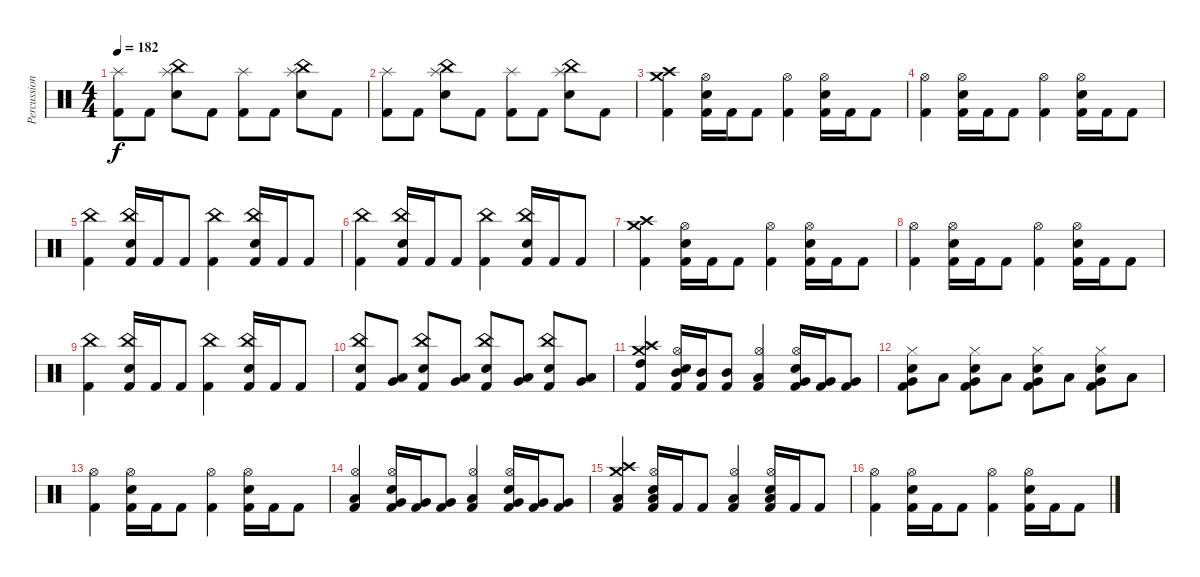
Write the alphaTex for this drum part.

\track ("Percussion" "Percussion") {instrument percussion}
\staff {score}
\articulation defaults
\ts (4 4)
\tempo 182
\clef neutral
\ks c
("Splash (hit)" "Kick (hit) 2").8{dy f} "Kick (hit) 2".8 ("Splash (hit)" "China (hit)" "Snare (hit) 2").8 "Kick (hit) 2".8 ("Splash (hit)" "Kick (hit) 2").8 "Kick (hit) 2".8 ("Splash (hit)" "China (hit)" "Snare (hit) 2").8 "Kick (hit) 2".8 |
("Splash (hit)" "Kick (hit) 2").8 "Kick (hit) 2".8 ("Splash (hit)" "China (hit)" "Snare (hit) 2").8 "Kick (hit) 2".8 ("Splash (hit)" "Kick (hit) 2").8 "Kick (hit) 2".8 ("Splash (hit)" "China (hit)" "Snare (hit) 2").8 "Kick (hit) 2".8 |
("Crash high (hit)" "Crash medium (hit)" "Kick (hit) 2").4 ("Hi-Hat (open)" "Snare (hit) 2" "Kick (hit) 2").16 "Kick (hit) 2".16 "Kick (hit) 2".8 ("Hi-Hat (open)" "Kick (hit) 2").4 ("Hi-Hat (open)" "Snare (hit) 2" "Kick (hit) 2").16 "Kick (hit) 2".16 "Kick (hit) 2".8 |
("Hi-Hat (open)" "Kick (hit) 2").4 ("Hi-Hat (open)" "Snare (hit) 2" "Kick (hit) 2").16 "Kick (hit) 2".16 "Kick (hit) 2".8 ("Hi-Hat (open)" "Kick (hit) 2").4 ("Hi-Hat (open)" "Snare (hit) 2" "Kick (hit) 2").16 "Kick (hit) 2".16 "Kick (hit) 2".8 |
("China (hit)" "Kick (hit) 2").4 ("China (hit)" "Snare (hit) 2" "Kick (hit) 2").16 "Kick (hit) 2".16 "Kick (hit) 2".8 ("China (hit)" "Kick (hit) 2").4 ("China (hit)" "Snare (hit) 2" "Kick (hit) 2").16 "Kick (hit) 2".16 "Kick (hit) 2".8 |
("China (hit)" "Kick (hit) 2").4 ("China (hit)" "Snare (hit) 2" "Kick (hit) 2").16 "Kick (hit) 2".16 "Kick (hit) 2".8 ("China (hit)" "Kick (hit) 2").4 ("China (hit)" "Snare (hit) 2" "Kick (hit) 2").16 "Kick (hit) 2".16 "Kick (hit) 2".8 |
("Crash high (hit)" "Crash medium (hit)" "Kick (hit) 2").4 ("Hi-Hat (open)" "Snare (hit) 2" "Kick (hit) 2").16 "Kick (hit) 2".16 "Kick (hit) 2".8 ("Hi-Hat (open)" "Kick (hit) 2").4 ("Hi-Hat (open)" "Snare (hit) 2" "Kick (hit) 2").16 "Kick (hit) 2".16 "Kick (hit) 2".8 |
("Hi-Hat (open)" "Kick (hit) 2").4 ("Hi-Hat (open)" "Snare (hit) 2" "Kick (hit) 2").16 "Kick (hit) 2".16 "Kick (hit) 2".8 ("Hi-Hat (open)" "Kick (hit) 2").4 ("Hi-Hat (open)" "Snare (hit) 2" "Kick (hit) 2").16 "Kick (hit) 2".16 "Kick (hit) 2".8 |
("China (hit)" "Kick (hit) 2").4 ("China (hit)" "Snare (hit) 2" "Kick (hit) 2").16 "Kick (hit) 2".16 "Kick (hit) 2".8 ("China (hit)" "Kick (hit) 2").4 ("China (hit)" "Snare (hit) 2" "Kick (hit) 2").16 "Kick (hit) 2".16 "Kick (hit) 2".8 |
("China (hit)" "Snare (hit) 2" "Kick (hit) 2").8 ("Low Floor Tom (hit)" "Very Low Tom (hit)").8 ("China (hit)" "Snare (hit) 2" "Kick (hit) 2").8 ("Low Floor Tom (hit)" "Very Low Tom (hit)").8 ("China (hit)" "Snare (hit) 2" "Kick (hit) 2").8 ("Low Floor Tom (hit)" "Very Low Tom (hit)").8 ("China (hit)" "Snare (hit) 2" "Kick (hit) 2").8 ("Low Floor Tom (hit)" "Very Low Tom (hit)").8 |
("Crash high (hit)" "Crash medium (hit)" "High Tom (hit)" "Kick (hit) 2").4 ("Hi-Hat (open)" "Mid Tom (hit)" "Snare (hit) 2" "Kick (hit) 2").16 ("Mid Tom (hit)" "Kick (hit) 2").16 ("Mid Tom (hit)" "Kick (hit) 2").8 ("Hi-Hat (open)" "Low Tom (hit)" "Kick (hit) 2").4 ("Hi-Hat (open)" "Very Low Tom (hit)" "Snare (hit) 2" "Kick (hit) 2").16 ("Very Low Tom (hit)" "Kick (hit) 2").16 ("Very Low Tom (hit)" "Kick (hit) 2").8 |
("Hi-Hat (closed)" "Very Low Tom (hit)" "Snare (hit) 2" "Kick (hit) 2").8 "Low Floor Tom (hit)".8 ("Hi-Hat (closed)" "Very Low Tom (hit)" "Snare (hit) 2" "Kick (hit) 2").8 "Low Floor Tom (hit)".8 ("Hi-Hat (closed)" "Very Low Tom (hit)" "Snare (hit) 2" "Kick (hit) 2").8 "Low Floor Tom (hit)".8 ("Hi-Hat (closed)" "Very Low Tom (hit)" "Snare (hit) 2" "Kick (hit) 2").8 "Low Floor Tom (hit)".8 |
("Hi-Hat (open)" "Kick (hit) 2").4 ("Hi-Hat (open)" "Snare (hit) 2" "Kick (hit) 2").16 "Kick (hit) 2".16 "Kick (hit) 2".8 ("Hi-Hat (open)" "Kick (hit) 2").4 ("Hi-Hat (open)" "Snare (hit) 2" "Kick (hit) 2").16 "Kick (hit) 2".16 "Kick (hit) 2".8 |
("Hi-Hat (open)" "Low Floor Tom (hit)" "Kick (hit) 2").4 ("Hi-Hat (open)" "Very Low Tom (hit)" "Snare (hit) 2" "Kick (hit) 2").16 ("Very Low Tom (hit)" "Kick (hit) 2").16 ("Very Low Tom (hit)" "Kick (hit) 2").8 ("Hi-Hat (open)" "Low Floor Tom (hit)" "Kick (hit) 2").4 ("Hi-Hat (open)" "Very Low Tom (hit)" "Snare (hit) 2" "Kick (hit) 2").16 ("Very Low Tom (hit)" "Kick (hit) 2").16 ("Very Low Tom (hit)" "Kick (hit) 2").8 |
("Crash high (hit)" "Crash medium (hit)" "Low Floor Tom (hit)" "Kick (hit) 2").4 ("Hi-Hat (open)" "Low Floor Tom (hit)" "Snare (hit) 2" "Kick (hit) 2").16 "Kick (hit) 2".16 "Kick (hit) 2".8 ("Hi-Hat (open)" "Low Floor Tom (hit)" "Kick (hit) 2").4 ("Hi-Hat (open)" "Low Floor Tom (hit)" "Snare (hit) 2" "Kick (hit) 2").16 "Kick (hit) 2".16 "Kick (hit) 2".8 |
("Hi-Hat (open)" "Kick (hit) 2").4 ("Hi-Hat (open)" "Snare (hit) 2" "Kick (hit) 2").16 "Kick (hit) 2".16 "Kick (hit) 2".8 ("Hi-Hat (open)" "Kick (hit) 2").4 ("Hi-Hat (open)" "Snare (hit) 2" "Kick (hit) 2").16 "Kick (hit) 2".16 "Kick (hit) 2".8
